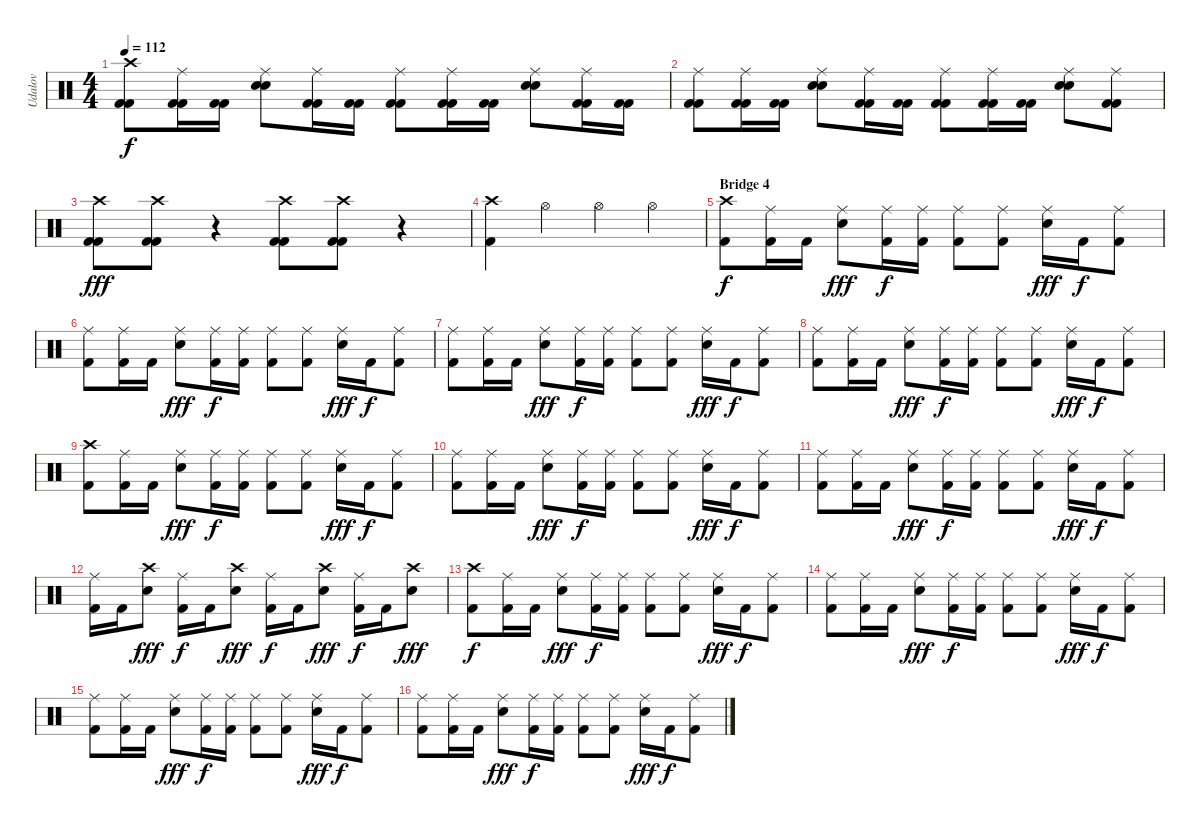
\track ("Udalov" "Udalov") {instrument percussion}
\staff {score}
\articulation defaults
\ts (4 4)
\tempo 112
\clef neutral
\ks c
("Crash high (hit)" "Kick (hit) 2" "Kick (hit) 2").8{dy f} ("Ride (middle)" "Kick (hit) 2" "Kick (hit) 2").16 ("Kick (hit) 2" "Kick (hit) 2").16 ("Ride (middle)" "Electric Snare (hit)" "Electric Snare (hit)").8 ("Ride (middle)" "Kick (hit) 2" "Kick (hit) 2").16 ("Kick (hit) 2" "Kick (hit) 2").16 ("Ride (middle)" "Kick (hit) 2" "Kick (hit) 2").8 ("Ride (middle)" "Kick (hit) 2" "Kick (hit) 2").16 ("Kick (hit) 2" "Kick (hit) 2").16 ("Ride (middle)" "Electric Snare (hit)" "Electric Snare (hit)").8 ("Ride (middle)" "Kick (hit) 2" "Kick (hit) 2").16 ("Kick (hit) 2" "Kick (hit) 2").16 |
("Ride (middle)" "Kick (hit) 2" "Kick (hit) 2").8 ("Ride (middle)" "Kick (hit) 2" "Kick (hit) 2").16 ("Kick (hit) 2" "Kick (hit) 2").16 ("Ride (middle)" "Electric Snare (hit)" "Electric Snare (hit)").8 ("Ride (middle)" "Kick (hit) 2" "Kick (hit) 2").16 ("Kick (hit) 2" "Kick (hit) 2").16 ("Ride (middle)" "Kick (hit) 2" "Kick (hit) 2").8 ("Ride (middle)" "Kick (hit) 2" "Kick (hit) 2").16 ("Kick (hit) 2" "Kick (hit) 2").16 ("Ride (middle)" "Electric Snare (hit)" "Electric Snare (hit)").8 ("Ride (middle)" "Kick (hit) 2" "Kick (hit) 2").8 |
("Crash high (hit)" "Kick (hit) 2" "Kick (hit) 2").8{dy fff} ("Crash high (hit)" "Kick (hit) 2" "Kick (hit) 2").8 r.4 ("Crash high (hit)" "Kick (hit) 2" "Kick (hit) 2").8 ("Crash high (hit)" "Kick (hit) 2" "Kick (hit) 2").8 r.4 |
("Crash high (hit)" "Kick (hit) 2").4 "Hi-Hat (open)".4 "Hi-Hat (open)".4 "Hi-Hat (open)".4 |
\section ("" "Bridge 4")
("Crash high (hit)" "Kick (hit) 2").8{dy f} ("Ride (middle)" "Kick (hit) 2").16 "Kick (hit) 2".16 ("Ride (middle)" "Electric Snare (hit)").8{dy fff} ("Ride (middle)" "Kick (hit) 2").16{dy f} ("Ride (middle)" "Kick (hit) 2").16 ("Ride (middle)" "Kick (hit) 2").8 ("Ride (middle)" "Kick (hit) 2").8 ("Ride (middle)" "Electric Snare (hit)").16{dy fff} "Kick (hit) 2".16{dy f} ("Ride (middle)" "Kick (hit) 2").8 |
("Ride (middle)" "Kick (hit) 2").8 ("Ride (middle)" "Kick (hit) 2").16 "Kick (hit) 2".16 ("Ride (middle)" "Electric Snare (hit)").8{dy fff} ("Ride (middle)" "Kick (hit) 2").16{dy f} ("Ride (middle)" "Kick (hit) 2").16 ("Ride (middle)" "Kick (hit) 2").8 ("Ride (middle)" "Kick (hit) 2").8 ("Ride (middle)" "Electric Snare (hit)").16{dy fff} "Kick (hit) 2".16{dy f} ("Ride (middle)" "Kick (hit) 2").8 |
("Ride (middle)" "Kick (hit) 2").8 ("Ride (middle)" "Kick (hit) 2").16 "Kick (hit) 2".16 ("Ride (middle)" "Electric Snare (hit)").8{dy fff} ("Ride (middle)" "Kick (hit) 2").16{dy f} ("Ride (middle)" "Kick (hit) 2").16 ("Ride (middle)" "Kick (hit) 2").8 ("Ride (middle)" "Kick (hit) 2").8 ("Ride (middle)" "Electric Snare (hit)").16{dy fff} "Kick (hit) 2".16{dy f} ("Ride (middle)" "Kick (hit) 2").8 |
("Ride (middle)" "Kick (hit) 2").8 ("Ride (middle)" "Kick (hit) 2").16 "Kick (hit) 2".16 ("Ride (middle)" "Electric Snare (hit)").8{dy fff} ("Ride (middle)" "Kick (hit) 2").16{dy f} ("Ride (middle)" "Kick (hit) 2").16 ("Ride (middle)" "Kick (hit) 2").8 ("Ride (middle)" "Kick (hit) 2").8 ("Ride (middle)" "Electric Snare (hit)").16{dy fff} "Kick (hit) 2".16{dy f} ("Ride (middle)" "Kick (hit) 2").8 |
("Crash high (hit)" "Kick (hit) 2").8 ("Ride (middle)" "Kick (hit) 2").16 "Kick (hit) 2".16 ("Ride (middle)" "Electric Snare (hit)").8{dy fff} ("Ride (middle)" "Kick (hit) 2").16{dy f} ("Ride (middle)" "Kick (hit) 2").16 ("Ride (middle)" "Kick (hit) 2").8 ("Ride (middle)" "Kick (hit) 2").8 ("Ride (middle)" "Electric Snare (hit)").16{dy fff} "Kick (hit) 2".16{dy f} ("Ride (middle)" "Kick (hit) 2").8 |
("Ride (middle)" "Kick (hit) 2").8 ("Ride (middle)" "Kick (hit) 2").16 "Kick (hit) 2".16 ("Ride (middle)" "Electric Snare (hit)").8{dy fff} ("Ride (middle)" "Kick (hit) 2").16{dy f} ("Ride (middle)" "Kick (hit) 2").16 ("Ride (middle)" "Kick (hit) 2").8 ("Ride (middle)" "Kick (hit) 2").8 ("Ride (middle)" "Electric Snare (hit)").16{dy fff} "Kick (hit) 2".16{dy f} ("Ride (middle)" "Kick (hit) 2").8 |
("Ride (middle)" "Kick (hit) 2").8 ("Ride (middle)" "Kick (hit) 2").16 "Kick (hit) 2".16 ("Ride (middle)" "Electric Snare (hit)").8{dy fff} ("Ride (middle)" "Kick (hit) 2").16{dy f} ("Ride (middle)" "Kick (hit) 2").16 ("Ride (middle)" "Kick (hit) 2").8 ("Ride (middle)" "Kick (hit) 2").8 ("Ride (middle)" "Electric Snare (hit)").16{dy fff} "Kick (hit) 2".16{dy f} ("Ride (middle)" "Kick (hit) 2").8 |
("Ride (middle)" "Kick (hit) 2").16 "Kick (hit) 2".16 ("Crash high (hit)" "Electric Snare (hit)").8{dy fff} ("Ride (middle)" "Kick (hit) 2").16{dy f} "Kick (hit) 2".16 ("Crash high (hit)" "Electric Snare (hit)").8{dy fff} ("Ride (middle)" "Kick (hit) 2").16{dy f} "Kick (hit) 2".16 ("Crash high (hit)" "Electric Snare (hit)").8{dy fff} ("Ride (middle)" "Kick (hit) 2").16{dy f} "Kick (hit) 2".16 ("Crash high (hit)" "Electric Snare (hit)").8{dy fff} |
("Crash high (hit)" "Kick (hit) 2").8{dy f} ("Ride (middle)" "Kick (hit) 2").16 "Kick (hit) 2".16 ("Ride (middle)" "Electric Snare (hit)").8{dy fff} ("Ride (middle)" "Kick (hit) 2").16{dy f} ("Ride (middle)" "Kick (hit) 2").16 ("Ride (middle)" "Kick (hit) 2").8 ("Ride (middle)" "Kick (hit) 2").8 ("Ride (middle)" "Electric Snare (hit)").16{dy fff} "Kick (hit) 2".16{dy f} ("Ride (middle)" "Kick (hit) 2").8 |
("Ride (middle)" "Kick (hit) 2").8 ("Ride (middle)" "Kick (hit) 2").16 "Kick (hit) 2".16 ("Ride (middle)" "Electric Snare (hit)").8{dy fff} ("Ride (middle)" "Kick (hit) 2").16{dy f} ("Ride (middle)" "Kick (hit) 2").16 ("Ride (middle)" "Kick (hit) 2").8 ("Ride (middle)" "Kick (hit) 2").8 ("Ride (middle)" "Electric Snare (hit)").16{dy fff} "Kick (hit) 2".16{dy f} ("Ride (middle)" "Kick (hit) 2").8 |
("Ride (middle)" "Kick (hit) 2").8 ("Ride (middle)" "Kick (hit) 2").16 "Kick (hit) 2".16 ("Ride (middle)" "Electric Snare (hit)").8{dy fff} ("Ride (middle)" "Kick (hit) 2").16{dy f} ("Ride (middle)" "Kick (hit) 2").16 ("Ride (middle)" "Kick (hit) 2").8 ("Ride (middle)" "Kick (hit) 2").8 ("Ride (middle)" "Electric Snare (hit)").16{dy fff} "Kick (hit) 2".16{dy f} ("Ride (middle)" "Kick (hit) 2").8 |
("Ride (middle)" "Kick (hit) 2").8 ("Ride (middle)" "Kick (hit) 2").16 "Kick (hit) 2".16 ("Ride (middle)" "Electric Snare (hit)").8{dy fff} ("Ride (middle)" "Kick (hit) 2").16{dy f} ("Ride (middle)" "Kick (hit) 2").16 ("Ride (middle)" "Kick (hit) 2").8 ("Ride (middle)" "Kick (hit) 2").8 ("Ride (middle)" "Electric Snare (hit)").16{dy fff} "Kick (hit) 2".16{dy f} ("Ride (middle)" "Kick (hit) 2").8
